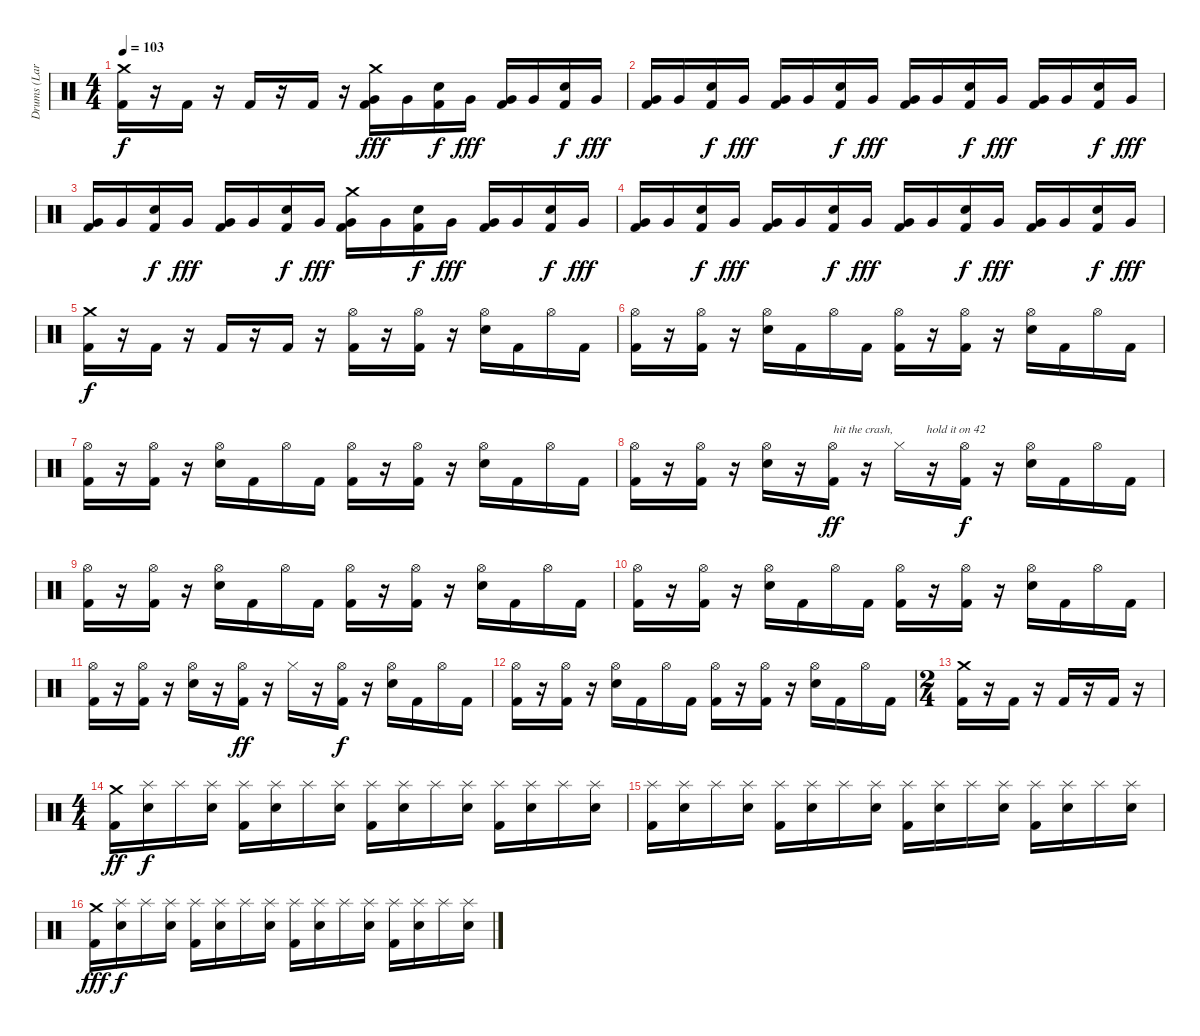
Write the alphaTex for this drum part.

\track ("Drums (Lars)" "Drums (Lar") {instrument percussion}
\staff {score}
\articulation defaults
\ts (4 4)
\tempo 103
\clef neutral
\ks c
("Crash medium (hit)" "Kick (hit) 2").16{dy f} r.16 "Kick (hit) 2".16 r.16 "Kick (hit) 2".16 r.16 "Kick (hit) 2".16 r.16 ("Crash medium (hit)" "Very Low Tom (hit)" "Kick (hit) 2").16{dy fff} "Very Low Tom (hit)".16 ("Snare (hit) 2" "Kick (hit) 2").16{dy f} "Very Low Tom (hit)".16{dy fff} ("Very Low Tom (hit)" "Kick (hit) 2").16 "Very Low Tom (hit)".16 ("Snare (hit) 2" "Kick (hit) 2").16{dy f} "Very Low Tom (hit)".16{dy fff} |
("Very Low Tom (hit)" "Kick (hit) 2").16 "Very Low Tom (hit)".16 ("Snare (hit) 2" "Kick (hit) 2").16{dy f} "Very Low Tom (hit)".16{dy fff} ("Very Low Tom (hit)" "Kick (hit) 2").16 "Very Low Tom (hit)".16 ("Snare (hit) 2" "Kick (hit) 2").16{dy f} "Very Low Tom (hit)".16{dy fff} ("Very Low Tom (hit)" "Kick (hit) 2").16 "Very Low Tom (hit)".16 ("Snare (hit) 2" "Kick (hit) 2").16{dy f} "Very Low Tom (hit)".16{dy fff} ("Very Low Tom (hit)" "Kick (hit) 2").16 "Very Low Tom (hit)".16 ("Snare (hit) 2" "Kick (hit) 2").16{dy f} "Very Low Tom (hit)".16{dy fff} |
("Very Low Tom (hit)" "Kick (hit) 2").16 "Very Low Tom (hit)".16 ("Snare (hit) 2" "Kick (hit) 2").16{dy f} "Very Low Tom (hit)".16{dy fff} ("Very Low Tom (hit)" "Kick (hit) 2").16 "Very Low Tom (hit)".16 ("Snare (hit) 2" "Kick (hit) 2").16{dy f} "Very Low Tom (hit)".16{dy fff} ("Crash medium (hit)" "Very Low Tom (hit)" "Kick (hit) 2").16 "Very Low Tom (hit)".16 ("Snare (hit) 2" "Kick (hit) 2").16{dy f} "Very Low Tom (hit)".16{dy fff} ("Very Low Tom (hit)" "Kick (hit) 2").16 "Very Low Tom (hit)".16 ("Snare (hit) 2" "Kick (hit) 2").16{dy f} "Very Low Tom (hit)".16{dy fff} |
("Very Low Tom (hit)" "Kick (hit) 2").16 "Very Low Tom (hit)".16 ("Snare (hit) 2" "Kick (hit) 2").16{dy f} "Very Low Tom (hit)".16{dy fff} ("Very Low Tom (hit)" "Kick (hit) 2").16 "Very Low Tom (hit)".16 ("Snare (hit) 2" "Kick (hit) 2").16{dy f} "Very Low Tom (hit)".16{dy fff} ("Very Low Tom (hit)" "Kick (hit) 2").16 "Very Low Tom (hit)".16 ("Snare (hit) 2" "Kick (hit) 2").16{dy f} "Very Low Tom (hit)".16{dy fff} ("Very Low Tom (hit)" "Kick (hit) 2").16 "Very Low Tom (hit)".16 ("Snare (hit) 2" "Kick (hit) 2").16{dy f} "Very Low Tom (hit)".16{dy fff} |
("Crash medium (hit)" "Kick (hit) 2").16{dy f} r.16 "Kick (hit) 2".16 r.16 "Kick (hit) 2".16 r.16 "Kick (hit) 2".16 r.16 ("Hi-Hat (open)" "Kick (hit) 2").16 r.16 ("Hi-Hat (open)" "Kick (hit) 2").16 r.16 ("Hi-Hat (open)" "Snare (hit) 2").16 "Kick (hit) 2".16 "Hi-Hat (open)".16 "Kick (hit) 2".16 |
("Hi-Hat (open)" "Kick (hit) 2").16 r.16 ("Hi-Hat (open)" "Kick (hit) 2").16 r.16 ("Hi-Hat (open)" "Snare (hit) 2").16 "Kick (hit) 2".16 "Hi-Hat (open)".16 "Kick (hit) 2".16 ("Hi-Hat (open)" "Kick (hit) 2").16 r.16 ("Hi-Hat (open)" "Kick (hit) 2").16 r.16 ("Hi-Hat (open)" "Snare (hit) 2").16 "Kick (hit) 2".16 "Hi-Hat (open)".16 "Kick (hit) 2".16 |
("Hi-Hat (open)" "Kick (hit) 2").16 r.16 ("Hi-Hat (open)" "Kick (hit) 2").16 r.16 ("Hi-Hat (open)" "Snare (hit) 2").16 "Kick (hit) 2".16 "Hi-Hat (open)".16 "Kick (hit) 2".16 ("Hi-Hat (open)" "Kick (hit) 2").16 r.16 ("Hi-Hat (open)" "Kick (hit) 2").16 r.16 ("Hi-Hat (open)" "Snare (hit) 2").16 "Kick (hit) 2".16 "Hi-Hat (open)".16 "Kick (hit) 2".16 |
("Hi-Hat (open)" "Kick (hit) 2").16 r.16 ("Hi-Hat (open)" "Kick (hit) 2").16 r.16 ("Hi-Hat (open)" "Snare (hit) 2").16 r.16 ("Hi-Hat (open)" "Kick (hit) 2").16{txt "hit the crash," dy ff} r.16 "Hi-Hat (closed)".16{txt "         hold it on 42"} r.16 ("Hi-Hat (open)" "Kick (hit) 2").16{dy f} r.16 ("Hi-Hat (open)" "Snare (hit) 2").16 "Kick (hit) 2".16 "Hi-Hat (open)".16 "Kick (hit) 2".16 |
("Hi-Hat (open)" "Kick (hit) 2").16 r.16 ("Hi-Hat (open)" "Kick (hit) 2").16 r.16 ("Hi-Hat (open)" "Snare (hit) 2").16 "Kick (hit) 2".16 "Hi-Hat (open)".16 "Kick (hit) 2".16 ("Hi-Hat (open)" "Kick (hit) 2").16 r.16 ("Hi-Hat (open)" "Kick (hit) 2").16 r.16 ("Hi-Hat (open)" "Snare (hit) 2").16 "Kick (hit) 2".16 "Hi-Hat (open)".16 "Kick (hit) 2".16 |
("Hi-Hat (open)" "Kick (hit) 2").16 r.16 ("Hi-Hat (open)" "Kick (hit) 2").16 r.16 ("Hi-Hat (open)" "Snare (hit) 2").16 "Kick (hit) 2".16 "Hi-Hat (open)".16 "Kick (hit) 2".16 ("Hi-Hat (open)" "Kick (hit) 2").16 r.16 ("Hi-Hat (open)" "Kick (hit) 2").16 r.16 ("Hi-Hat (open)" "Snare (hit) 2").16 "Kick (hit) 2".16 "Hi-Hat (open)".16 "Kick (hit) 2".16 |
("Hi-Hat (open)" "Kick (hit) 2").16 r.16 ("Hi-Hat (open)" "Kick (hit) 2").16 r.16 ("Hi-Hat (open)" "Snare (hit) 2").16 r.16 ("Hi-Hat (open)" "Kick (hit) 2").16{dy ff} r.16 "Hi-Hat (closed)".16 r.16 ("Hi-Hat (open)" "Kick (hit) 2").16{dy f} r.16 ("Hi-Hat (open)" "Snare (hit) 2").16 "Kick (hit) 2".16 "Hi-Hat (open)".16 "Kick (hit) 2".16 |
("Hi-Hat (open)" "Kick (hit) 2").16 r.16 ("Hi-Hat (open)" "Kick (hit) 2").16 r.16 ("Hi-Hat (open)" "Snare (hit) 2").16 "Kick (hit) 2".16 "Hi-Hat (open)".16 "Kick (hit) 2".16 ("Hi-Hat (open)" "Kick (hit) 2").16 r.16 ("Hi-Hat (open)" "Kick (hit) 2").16 r.16 ("Hi-Hat (open)" "Snare (hit) 2").16 "Kick (hit) 2".16 "Hi-Hat (open)".16 "Kick (hit) 2".16 |
\ts (2 4)
("Crash medium (hit)" "Kick (hit) 2").16 r.16 "Kick (hit) 2".16 r.16 "Kick (hit) 2".16 r.16 "Kick (hit) 2".16 r.16 |
\ts (4 4)
("Crash medium (hit)" "Kick (hit) 2").16{dy ff} ("Splash (hit)" "Snare (hit) 2").16{dy f} "Splash (hit)".16 ("Splash (hit)" "Snare (hit) 2").16 ("Splash (hit)" "Kick (hit) 2").16 ("Splash (hit)" "Snare (hit) 2").16 "Splash (hit)".16 ("Splash (hit)" "Snare (hit) 2").16 ("Splash (hit)" "Kick (hit) 2").16 ("Splash (hit)" "Snare (hit) 2").16 "Splash (hit)".16 ("Splash (hit)" "Snare (hit) 2").16 ("Splash (hit)" "Kick (hit) 2").16 ("Splash (hit)" "Snare (hit) 2").16 "Splash (hit)".16 ("Splash (hit)" "Snare (hit) 2").16 |
("Splash (hit)" "Kick (hit) 2").16 ("Splash (hit)" "Snare (hit) 2").16 "Splash (hit)".16 ("Splash (hit)" "Snare (hit) 2").16 ("Splash (hit)" "Kick (hit) 2").16 ("Splash (hit)" "Snare (hit) 2").16 "Splash (hit)".16 ("Splash (hit)" "Snare (hit) 2").16 ("Splash (hit)" "Kick (hit) 2").16 ("Splash (hit)" "Snare (hit) 2").16 "Splash (hit)".16 ("Splash (hit)" "Snare (hit) 2").16 ("Splash (hit)" "Kick (hit) 2").16 ("Splash (hit)" "Snare (hit) 2").16 "Splash (hit)".16 ("Splash (hit)" "Snare (hit) 2").16 |
("Crash medium (hit)" "Kick (hit) 2").16{dy fff} ("Splash (hit)" "Snare (hit) 2").16{dy f} "Splash (hit)".16 ("Splash (hit)" "Snare (hit) 2").16 ("Splash (hit)" "Kick (hit) 2").16 ("Splash (hit)" "Snare (hit) 2").16 "Splash (hit)".16 ("Splash (hit)" "Snare (hit) 2").16 ("Splash (hit)" "Kick (hit) 2").16 ("Splash (hit)" "Snare (hit) 2").16 "Splash (hit)".16 ("Splash (hit)" "Snare (hit) 2").16 ("Splash (hit)" "Kick (hit) 2").16 ("Splash (hit)" "Snare (hit) 2").16 "Splash (hit)".16 ("Splash (hit)" "Snare (hit) 2").16
